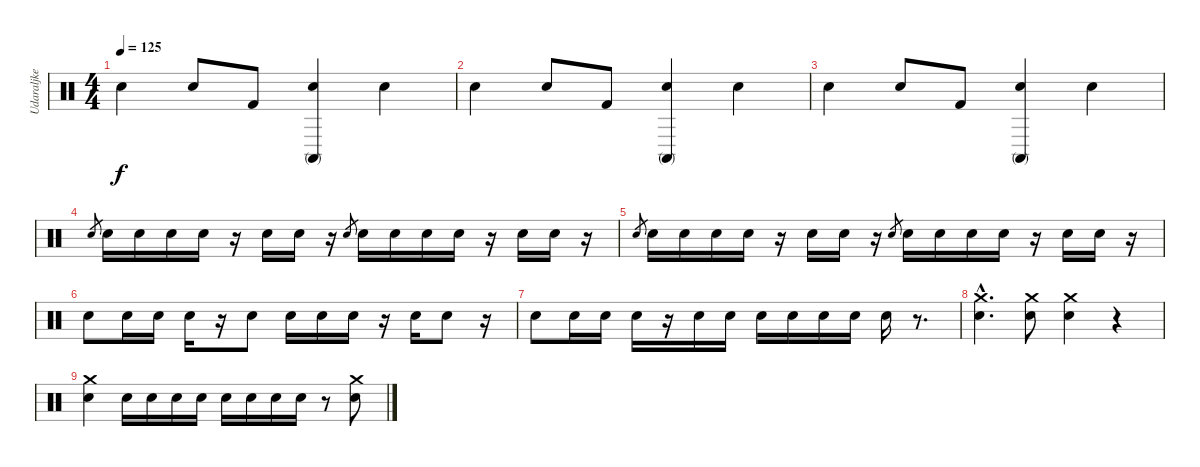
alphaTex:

\track ("Udaraljke" "Udaraljke") {instrument percussion}
\staff {score}
\articulation defaults
\ts (4 4)
\tempo 125
\clef neutral
\ks c "Electric Snare (hit)".4{dy f} "Electric Snare (hit)".8 "Kick (hit) 2".8
("Electric Snare (hit)" "Conga high (mute)").4 "Electric Snare (hit)".4 |
"Electric Snare (hit)".4 "Electric Snare (hit)".8 "Kick (hit) 2".8 ("Electric Snare (hit)" "Conga high (mute)").4 "Electric Snare (hit)".4 |
"Electric Snare (hit)".4 "Electric Snare (hit)".8 "Kick (hit) 2".8 ("Electric Snare (hit)" "Conga high (mute)").4 "Electric Snare (hit)".4 |
"Electric Snare (hit)".8{gr} "Electric Snare (hit)".16 "Electric Snare (hit)".16 "Electric Snare (hit)".16 "Electric Snare (hit)".16 r.16 "Electric Snare (hit)".16 "Electric Snare (hit)".16 r.16 "Electric Snare (hit)".8{gr} "Electric Snare (hit)".16 "Electric Snare (hit)".16 "Electric Snare (hit)".16 "Electric Snare (hit)".16 r.16 "Electric Snare (hit)".16 "Electric Snare (hit)".16 r.16 |
"Electric Snare (hit)".8{gr} "Electric Snare (hit)".16 "Electric Snare (hit)".16 "Electric Snare (hit)".16 "Electric Snare (hit)".16 r.16 "Electric Snare (hit)".16 "Electric Snare (hit)".16 r.16 "Electric Snare (hit)".8{gr} "Electric Snare (hit)".16 "Electric Snare (hit)".16 "Electric Snare (hit)".16 "Electric Snare (hit)".16 r.16 "Electric Snare (hit)".16 "Electric Snare (hit)".16 r.16 |
"Electric Snare (hit)".8 "Electric Snare (hit)".16 "Electric Snare (hit)".16 "Electric Snare (hit)".16 r.16 "Electric Snare (hit)".8 "Electric Snare (hit)".16 "Electric Snare (hit)".16 "Electric Snare (hit)".16 r.16 "Electric Snare (hit)".16 "Electric Snare (hit)".8 r.16 |
"Electric Snare (hit)".8 "Electric Snare (hit)".16 "Electric Snare (hit)".16 "Electric Snare (hit)".16 r.16 "Electric Snare (hit)".16 "Electric Snare (hit)".16 "Electric Snare (hit)".16 "Electric Snare (hit)".16 "Electric Snare (hit)".16 "Electric Snare (hit)".16 "Electric Snare (hit)".16 r.8{d} |
("Electric Snare (hit)"{hac} "Crash medium (hit)"{hac}).4{d} ("Electric Snare (hit)" "Crash medium (hit)").8 ("Electric Snare (hit)" "Crash medium (hit)").4 r.4 |
("Electric Snare (hit)" "Crash medium (hit)").4 "Electric Snare (hit)".16 "Electric Snare (hit)".16 "Electric Snare (hit)".16 "Electric Snare (hit)".16 "Electric Snare (hit)".16 "Electric Snare (hit)".16 "Electric Snare (hit)".16 "Electric Snare (hit)".16 r.8 ("Electric Snare (hit)" "Crash medium (hit)").8
